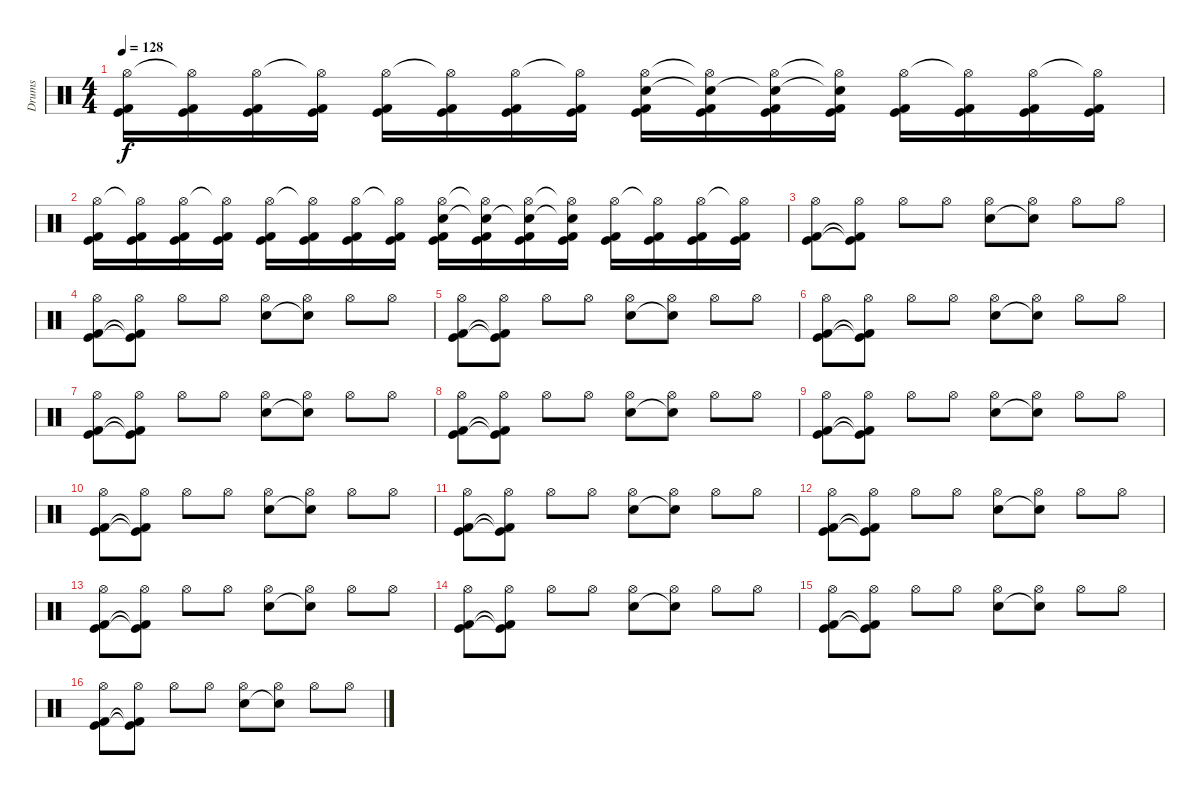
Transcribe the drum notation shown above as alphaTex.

\track ("Drums" "Drums") {instrument percussion}
\staff {score}
\articulation defaults
\ts (4 4)
\tempo 128
\clef neutral
\ks c
("Hi-Hat (open)" "Kick (hit) 2" "Kick (hit)").16{dy f} ("Hi-Hat (open)"{t} "Kick (hit) 2" "Kick (hit)").16 ("Hi-Hat (open)" "Kick (hit) 2" "Kick (hit)").16 ("Hi-Hat (open)"{t} "Kick (hit) 2" "Kick (hit)").16 ("Hi-Hat (open)" "Kick (hit) 2" "Kick (hit)").16 ("Hi-Hat (open)"{t} "Kick (hit) 2" "Kick (hit)").16 ("Hi-Hat (open)" "Kick (hit) 2" "Kick (hit)").16 ("Hi-Hat (open)"{t} "Kick (hit) 2" "Kick (hit)").16 ("Hi-Hat (open)" "Snare (hit) 2" "Kick (hit) 2" "Kick (hit)").16 ("Hi-Hat (open)"{t} "Snare (hit) 2"{t} "Kick (hit) 2" "Kick (hit)").16 ("Hi-Hat (open)" "Snare (hit) 2"{t} "Kick (hit) 2" "Kick (hit)").16 ("Hi-Hat (open)"{t} "Snare (hit) 2"{t} "Kick (hit) 2" "Kick (hit)").16 ("Hi-Hat (open)" "Kick (hit) 2" "Kick (hit)").16 ("Hi-Hat (open)"{t} "Kick (hit) 2" "Kick (hit)").16 ("Hi-Hat (open)" "Kick (hit) 2" "Kick (hit)").16 ("Hi-Hat (open)"{t} "Kick (hit) 2" "Kick (hit)").16 |
("Hi-Hat (open)" "Kick (hit) 2" "Kick (hit)").16 ("Hi-Hat (open)"{t} "Kick (hit) 2" "Kick (hit)").16 ("Hi-Hat (open)" "Kick (hit) 2" "Kick (hit)").16 ("Hi-Hat (open)"{t} "Kick (hit) 2" "Kick (hit)").16 ("Hi-Hat (open)" "Kick (hit) 2" "Kick (hit)").16 ("Hi-Hat (open)"{t} "Kick (hit) 2" "Kick (hit)").16 ("Hi-Hat (open)" "Kick (hit) 2" "Kick (hit)").16 ("Hi-Hat (open)"{t} "Kick (hit) 2" "Kick (hit)").16 ("Hi-Hat (open)" "Snare (hit) 2" "Kick (hit) 2" "Kick (hit)").16 ("Hi-Hat (open)"{t} "Snare (hit) 2"{t} "Kick (hit) 2" "Kick (hit)").16 ("Hi-Hat (open)" "Snare (hit) 2"{t} "Kick (hit) 2" "Kick (hit)").16 ("Hi-Hat (open)"{t} "Snare (hit) 2"{t} "Kick (hit) 2" "Kick (hit)").16 ("Hi-Hat (open)" "Kick (hit) 2" "Kick (hit)").16 ("Hi-Hat (open)"{t} "Kick (hit) 2" "Kick (hit)").16 ("Hi-Hat (open)" "Kick (hit) 2" "Kick (hit)").16 ("Hi-Hat (open)"{t} "Kick (hit) 2" "Kick (hit)").16 |
("Hi-Hat (open)" "Kick (hit) 2" "Kick (hit)").8 ("Hi-Hat (open)" "Kick (hit) 2"{t} "Kick (hit)"{t}).8 "Hi-Hat (open)".8 "Hi-Hat (open)".8 ("Hi-Hat (open)" "Snare (hit) 2").8 ("Hi-Hat (open)" "Snare (hit) 2"{t}).8 "Hi-Hat (open)".8 "Hi-Hat (open)".8 |
("Hi-Hat (open)" "Kick (hit) 2" "Kick (hit)").8 ("Hi-Hat (open)" "Kick (hit) 2"{t} "Kick (hit)"{t}).8 "Hi-Hat (open)".8 "Hi-Hat (open)".8 ("Hi-Hat (open)" "Snare (hit) 2").8 ("Hi-Hat (open)" "Snare (hit) 2"{t}).8 "Hi-Hat (open)".8 "Hi-Hat (open)".8 |
("Hi-Hat (open)" "Kick (hit) 2" "Kick (hit)").8 ("Hi-Hat (open)" "Kick (hit) 2"{t} "Kick (hit)"{t}).8 "Hi-Hat (open)".8 "Hi-Hat (open)".8 ("Hi-Hat (open)" "Snare (hit) 2").8 ("Hi-Hat (open)" "Snare (hit) 2"{t}).8 "Hi-Hat (open)".8 "Hi-Hat (open)".8 |
("Hi-Hat (open)" "Kick (hit) 2" "Kick (hit)").8 ("Hi-Hat (open)" "Kick (hit) 2"{t} "Kick (hit)"{t}).8 "Hi-Hat (open)".8 "Hi-Hat (open)".8 ("Hi-Hat (open)" "Snare (hit) 2").8 ("Hi-Hat (open)" "Snare (hit) 2"{t}).8 "Hi-Hat (open)".8 "Hi-Hat (open)".8 |
("Hi-Hat (open)" "Kick (hit) 2" "Kick (hit)").8 ("Hi-Hat (open)" "Kick (hit) 2"{t} "Kick (hit)"{t}).8 "Hi-Hat (open)".8 "Hi-Hat (open)".8 ("Hi-Hat (open)" "Snare (hit) 2").8 ("Hi-Hat (open)" "Snare (hit) 2"{t}).8 "Hi-Hat (open)".8 "Hi-Hat (open)".8 |
("Hi-Hat (open)" "Kick (hit) 2" "Kick (hit)").8 ("Hi-Hat (open)" "Kick (hit) 2"{t} "Kick (hit)"{t}).8 "Hi-Hat (open)".8 "Hi-Hat (open)".8 ("Hi-Hat (open)" "Snare (hit) 2").8 ("Hi-Hat (open)" "Snare (hit) 2"{t}).8 "Hi-Hat (open)".8 "Hi-Hat (open)".8 |
("Hi-Hat (open)" "Kick (hit) 2" "Kick (hit)").8 ("Hi-Hat (open)" "Kick (hit) 2"{t} "Kick (hit)"{t}).8 "Hi-Hat (open)".8 "Hi-Hat (open)".8 ("Hi-Hat (open)" "Snare (hit) 2").8 ("Hi-Hat (open)" "Snare (hit) 2"{t}).8 "Hi-Hat (open)".8 "Hi-Hat (open)".8 |
("Hi-Hat (open)" "Kick (hit) 2" "Kick (hit)").8 ("Hi-Hat (open)" "Kick (hit) 2"{t} "Kick (hit)"{t}).8 "Hi-Hat (open)".8 "Hi-Hat (open)".8 ("Hi-Hat (open)" "Snare (hit) 2").8 ("Hi-Hat (open)" "Snare (hit) 2"{t}).8 "Hi-Hat (open)".8 "Hi-Hat (open)".8 |
("Hi-Hat (open)" "Kick (hit) 2" "Kick (hit)").8 ("Hi-Hat (open)" "Kick (hit) 2"{t} "Kick (hit)"{t}).8 "Hi-Hat (open)".8 "Hi-Hat (open)".8 ("Hi-Hat (open)" "Snare (hit) 2").8 ("Hi-Hat (open)" "Snare (hit) 2"{t}).8 "Hi-Hat (open)".8 "Hi-Hat (open)".8 |
("Hi-Hat (open)" "Kick (hit) 2" "Kick (hit)").8 ("Hi-Hat (open)" "Kick (hit) 2"{t} "Kick (hit)"{t}).8 "Hi-Hat (open)".8 "Hi-Hat (open)".8 ("Hi-Hat (open)" "Snare (hit) 2").8 ("Hi-Hat (open)" "Snare (hit) 2"{t}).8 "Hi-Hat (open)".8 "Hi-Hat (open)".8 |
("Hi-Hat (open)" "Kick (hit) 2" "Kick (hit)").8 ("Hi-Hat (open)" "Kick (hit) 2"{t} "Kick (hit)"{t}).8 "Hi-Hat (open)".8 "Hi-Hat (open)".8 ("Hi-Hat (open)" "Snare (hit) 2").8 ("Hi-Hat (open)" "Snare (hit) 2"{t}).8 "Hi-Hat (open)".8 "Hi-Hat (open)".8 |
("Hi-Hat (open)" "Kick (hit) 2" "Kick (hit)").8 ("Hi-Hat (open)" "Kick (hit) 2"{t} "Kick (hit)"{t}).8 "Hi-Hat (open)".8 "Hi-Hat (open)".8 ("Hi-Hat (open)" "Snare (hit) 2").8 ("Hi-Hat (open)" "Snare (hit) 2"{t}).8 "Hi-Hat (open)".8 "Hi-Hat (open)".8 |
("Hi-Hat (open)" "Kick (hit) 2" "Kick (hit)").8 ("Hi-Hat (open)" "Kick (hit) 2"{t} "Kick (hit)"{t}).8 "Hi-Hat (open)".8 "Hi-Hat (open)".8 ("Hi-Hat (open)" "Snare (hit) 2").8 ("Hi-Hat (open)" "Snare (hit) 2"{t}).8 "Hi-Hat (open)".8 "Hi-Hat (open)".8 |
("Hi-Hat (open)" "Kick (hit) 2" "Kick (hit)").8 ("Hi-Hat (open)" "Kick (hit) 2"{t} "Kick (hit)"{t}).8 "Hi-Hat (open)".8 "Hi-Hat (open)".8 ("Hi-Hat (open)" "Snare (hit) 2").8 ("Hi-Hat (open)" "Snare (hit) 2"{t}).8 "Hi-Hat (open)".8 "Hi-Hat (open)".8
